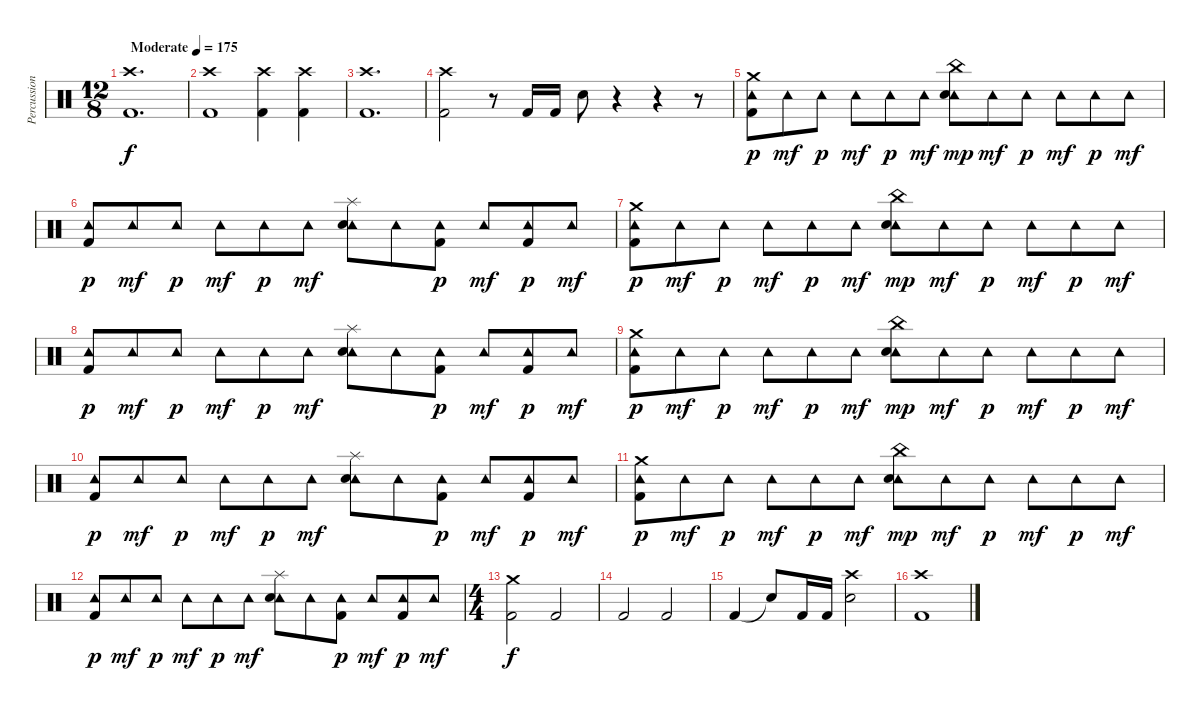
\track ("Percussion" "Percussion") {instrument percussion}
\staff {score}
\articulation defaults
\ts (12 8)
\tempo (175 "Moderate")
\clef neutral
\ks c
("Crash high (hit)" "Kick (hit) 2").1{d dy f} |
("Crash high (hit)" "Kick (hit) 2").1 ("Crash high (hit)" "Kick (hit) 2").4 ("Crash high (hit)" "Kick (hit) 2").4 |
("Crash high (hit)" "Kick (hit) 2").1{d} |
("Crash high (hit)" "Kick (hit) 2").2 r.8 "Kick (hit) 2".16 "Kick (hit) 2".16 "Electric Snare (hit)".8 r.4 r.4 r.8 |
("Tambourine (hit)" "Crash medium (hit)" "Kick (hit) 2").8{dy p} "Tambourine (hit)".8{dy mf} "Tambourine (hit)".8{dy p} "Tambourine (hit)".8{dy mf} "Tambourine (hit)".8{dy p} "Tambourine (hit)".8{dy mf} ("Tambourine (hit)" "China (hit)" "Electric Snare (hit)").8{dy mp} "Tambourine (hit)".8{dy mf} "Tambourine (hit)".8{dy p} "Tambourine (hit)".8{dy mf} "Tambourine (hit)".8{dy p} "Tambourine (hit)".8{dy mf} |
("Tambourine (hit)" "Kick (hit) 2").8{dy p} "Tambourine (hit)".8{dy mf} "Tambourine (hit)".8{dy p} "Tambourine (hit)".8{dy mf} "Tambourine (hit)".8{dy p} "Tambourine (hit)".8{dy mf} ("Tambourine (hit)" "Splash (hit)" "Electric Snare (hit)").8 "Tambourine (hit)".8 ("Tambourine (hit)" "Kick (hit) 2").8{dy p} "Tambourine (hit)".8{dy mf} ("Tambourine (hit)" "Kick (hit) 2").8{dy p} "Tambourine (hit)".8{dy mf} |
("Tambourine (hit)" "Crash medium (hit)" "Kick (hit) 2").8{dy p} "Tambourine (hit)".8{dy mf} "Tambourine (hit)".8{dy p} "Tambourine (hit)".8{dy mf} "Tambourine (hit)".8{dy p} "Tambourine (hit)".8{dy mf} ("Tambourine (hit)" "China (hit)" "Electric Snare (hit)").8{dy mp} "Tambourine (hit)".8{dy mf} "Tambourine (hit)".8{dy p} "Tambourine (hit)".8{dy mf} "Tambourine (hit)".8{dy p} "Tambourine (hit)".8{dy mf} |
("Tambourine (hit)" "Kick (hit) 2").8{dy p} "Tambourine (hit)".8{dy mf} "Tambourine (hit)".8{dy p} "Tambourine (hit)".8{dy mf} "Tambourine (hit)".8{dy p} "Tambourine (hit)".8{dy mf} ("Tambourine (hit)" "Splash (hit)" "Electric Snare (hit)").8 "Tambourine (hit)".8 ("Tambourine (hit)" "Kick (hit) 2").8{dy p} "Tambourine (hit)".8{dy mf} ("Tambourine (hit)" "Kick (hit) 2").8{dy p} "Tambourine (hit)".8{dy mf} |
("Tambourine (hit)" "Crash medium (hit)" "Kick (hit) 2").8{dy p} "Tambourine (hit)".8{dy mf} "Tambourine (hit)".8{dy p} "Tambourine (hit)".8{dy mf} "Tambourine (hit)".8{dy p} "Tambourine (hit)".8{dy mf} ("Tambourine (hit)" "China (hit)" "Electric Snare (hit)").8{dy mp} "Tambourine (hit)".8{dy mf} "Tambourine (hit)".8{dy p} "Tambourine (hit)".8{dy mf} "Tambourine (hit)".8{dy p} "Tambourine (hit)".8{dy mf} |
("Tambourine (hit)" "Kick (hit) 2").8{dy p} "Tambourine (hit)".8{dy mf} "Tambourine (hit)".8{dy p} "Tambourine (hit)".8{dy mf} "Tambourine (hit)".8{dy p} "Tambourine (hit)".8{dy mf} ("Tambourine (hit)" "Splash (hit)" "Electric Snare (hit)").8 "Tambourine (hit)".8 ("Tambourine (hit)" "Kick (hit) 2").8{dy p} "Tambourine (hit)".8{dy mf} ("Tambourine (hit)" "Kick (hit) 2").8{dy p} "Tambourine (hit)".8{dy mf} |
("Tambourine (hit)" "Crash medium (hit)" "Kick (hit) 2").8{dy p} "Tambourine (hit)".8{dy mf} "Tambourine (hit)".8{dy p} "Tambourine (hit)".8{dy mf} "Tambourine (hit)".8{dy p} "Tambourine (hit)".8{dy mf} ("Tambourine (hit)" "China (hit)" "Electric Snare (hit)").8{dy mp} "Tambourine (hit)".8{dy mf} "Tambourine (hit)".8{dy p} "Tambourine (hit)".8{dy mf} "Tambourine (hit)".8{dy p} "Tambourine (hit)".8{dy mf} |
("Tambourine (hit)" "Kick (hit) 2").8{dy p} "Tambourine (hit)".8{dy mf} "Tambourine (hit)".8{dy p} "Tambourine (hit)".8{dy mf} "Tambourine (hit)".8{dy p} "Tambourine (hit)".8{dy mf} ("Tambourine (hit)" "Splash (hit)" "Electric Snare (hit)").8 "Tambourine (hit)".8 ("Tambourine (hit)" "Kick (hit) 2").8{dy p} "Tambourine (hit)".8{dy mf} ("Tambourine (hit)" "Kick (hit) 2").8{dy p} "Tambourine (hit)".8{dy mf} |
\ts (4 4)
("Crash medium (hit)" "Kick (hit) 2").2{dy f} "Kick (hit) 2".2 |
"Kick (hit) 2".2 "Kick (hit) 2".2 |
"Kick (hit) 2".4 "Snare (hit)"{t}.8 "Kick (hit) 2".16 "Kick (hit) 2".16 ("Crash high (hit)" "Electric Snare (hit)").2 |
("Crash high (hit)" "Kick (hit) 2").1
